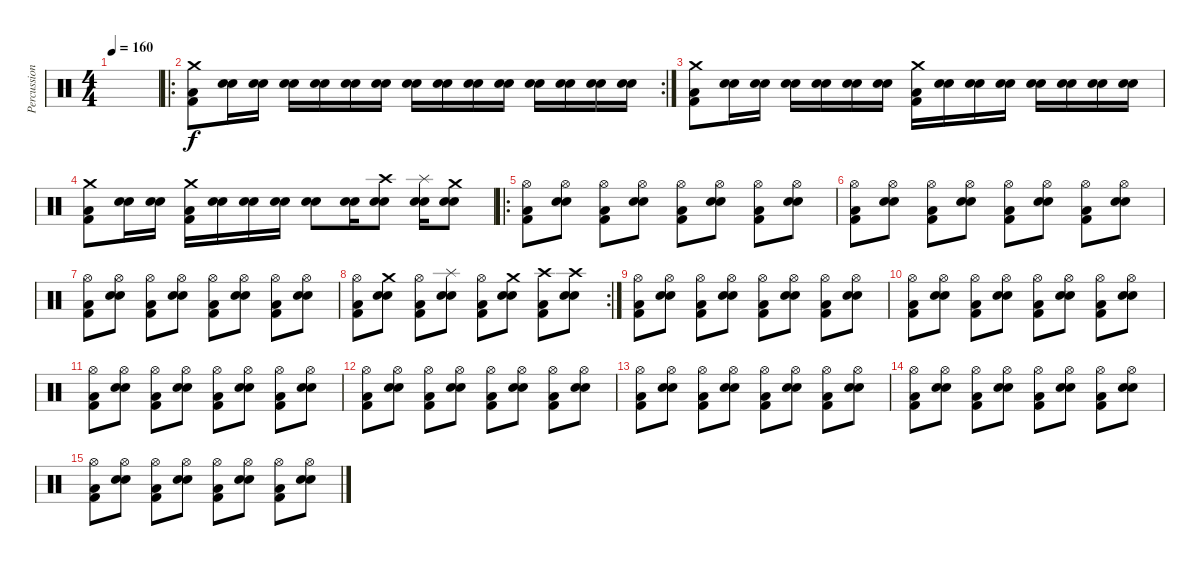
\track ("Percussions" "Percussion") {instrument percussion}
\staff {score}
\articulation defaults
\ts (4 4)
\tempo 160
\clef neutral
\ks c
|
\ro
\rc 2
("Crash medium (hit)" "Kick (hit) 2" "Low Floor Tom (hit)").8 ("Snare (hit) 2" "Electric Snare (hit)").16 ("Snare (hit) 2" "Electric Snare (hit)").16 ("Snare (hit) 2" "Electric Snare (hit)").16 ("Snare (hit) 2" "Electric Snare (hit)").16 ("Snare (hit) 2" "Electric Snare (hit)").16 ("Snare (hit) 2" "Electric Snare (hit)").16 ("Snare (hit) 2" "Electric Snare (hit)").16 ("Snare (hit) 2" "Electric Snare (hit)").16 ("Snare (hit) 2" "Electric Snare (hit)").16 ("Snare (hit) 2" "Electric Snare (hit)").16 ("Snare (hit) 2" "Electric Snare (hit)").16 ("Snare (hit) 2" "Electric Snare (hit)").16 ("Snare (hit) 2" "Electric Snare (hit)").16 ("Snare (hit) 2" "Electric Snare (hit)").16 |
("Crash medium (hit)" "Kick (hit) 2" "Low Floor Tom (hit)").8 ("Snare (hit) 2" "Electric Snare (hit)").16 ("Snare (hit) 2" "Electric Snare (hit)").16 ("Snare (hit) 2" "Electric Snare (hit)").16 ("Snare (hit) 2" "Electric Snare (hit)").16 ("Snare (hit) 2" "Electric Snare (hit)").16 ("Snare (hit) 2" "Electric Snare (hit)").16 ("Crash medium (hit)" "Kick (hit) 2" "Low Floor Tom (hit)").16 ("Snare (hit) 2" "Electric Snare (hit)").16 ("Snare (hit) 2" "Electric Snare (hit)").16 ("Snare (hit) 2" "Electric Snare (hit)").16 ("Snare (hit) 2" "Electric Snare (hit)").16 ("Snare (hit) 2" "Electric Snare (hit)").16 ("Snare (hit) 2" "Electric Snare (hit)").16 ("Snare (hit) 2" "Electric Snare (hit)").16 |
("Crash medium (hit)" "Kick (hit) 2" "Low Floor Tom (hit)").8 ("Snare (hit) 2" "Electric Snare (hit)").16 ("Snare (hit) 2" "Electric Snare (hit)").16 ("Crash medium (hit)" "Kick (hit) 2" "Low Floor Tom (hit)").16 ("Snare (hit) 2" "Electric Snare (hit)").16 ("Snare (hit) 2" "Electric Snare (hit)").16 ("Snare (hit) 2" "Electric Snare (hit)").16 ("Snare (hit) 2" "Electric Snare (hit)").8 ("Snare (hit) 2" "Electric Snare (hit)").16 ("Crash high (hit)" "Snare (hit) 2" "Electric Snare (hit)").8 ("Splash (hit)" "Snare (hit) 2" "Electric Snare (hit)").16 ("Crash medium (hit)" "Snare (hit) 2" "Electric Snare (hit)").8 |
\ro
("Hi-Hat (open)" "Kick (hit) 2" "Low Floor Tom (hit)").8 ("Hi-Hat (open)" "Snare (hit) 2" "Electric Snare (hit)").8 ("Hi-Hat (open)" "Kick (hit) 2" "Low Floor Tom (hit)").8 ("Hi-Hat (open)" "Snare (hit) 2" "Electric Snare (hit)").8 ("Hi-Hat (open)" "Kick (hit) 2" "Low Floor Tom (hit)").8 ("Hi-Hat (open)" "Snare (hit) 2" "Electric Snare (hit)").8 ("Hi-Hat (open)" "Kick (hit) 2" "Low Floor Tom (hit)").8 ("Hi-Hat (open)" "Snare (hit) 2" "Electric Snare (hit)").8 |
("Hi-Hat (open)" "Kick (hit) 2" "Low Floor Tom (hit)").8 ("Hi-Hat (open)" "Snare (hit) 2" "Electric Snare (hit)").8 ("Hi-Hat (open)" "Kick (hit) 2" "Low Floor Tom (hit)").8 ("Hi-Hat (open)" "Snare (hit) 2" "Electric Snare (hit)").8 ("Hi-Hat (open)" "Kick (hit) 2" "Low Floor Tom (hit)").8 ("Hi-Hat (open)" "Snare (hit) 2" "Electric Snare (hit)").8 ("Hi-Hat (open)" "Kick (hit) 2" "Low Floor Tom (hit)").8 ("Hi-Hat (open)" "Snare (hit) 2" "Electric Snare (hit)").8 |
("Hi-Hat (open)" "Kick (hit) 2" "Low Floor Tom (hit)").8 ("Hi-Hat (open)" "Snare (hit) 2" "Electric Snare (hit)").8 ("Hi-Hat (open)" "Kick (hit) 2" "Low Floor Tom (hit)").8 ("Hi-Hat (open)" "Snare (hit) 2" "Electric Snare (hit)").8 ("Hi-Hat (open)" "Kick (hit) 2" "Low Floor Tom (hit)").8 ("Hi-Hat (open)" "Snare (hit) 2" "Electric Snare (hit)").8 ("Hi-Hat (open)" "Kick (hit) 2" "Low Floor Tom (hit)").8 ("Hi-Hat (open)" "Snare (hit) 2" "Electric Snare (hit)").8 |
\rc 2
("Hi-Hat (open)" "Kick (hit) 2" "Low Floor Tom (hit)").8 ("Crash medium (hit)" "Snare (hit) 2" "Electric Snare (hit)").8 ("Hi-Hat (open)" "Kick (hit) 2" "Low Floor Tom (hit)").8 ("Splash (hit)" "Snare (hit) 2" "Electric Snare (hit)").8 ("Hi-Hat (open)" "Kick (hit) 2" "Low Floor Tom (hit)").8 ("Crash medium (hit)" "Snare (hit) 2" "Electric Snare (hit)").8 ("Crash high (hit)" "Kick (hit) 2" "Low Floor Tom (hit)").8 ("Crash high (hit)" "Snare (hit) 2" "Electric Snare (hit)").8 |
("Hi-Hat (open)" "Kick (hit) 2" "Low Floor Tom (hit)").8 ("Hi-Hat (open)" "Snare (hit) 2" "Electric Snare (hit)").8 ("Hi-Hat (open)" "Kick (hit) 2" "Low Floor Tom (hit)").8 ("Hi-Hat (open)" "Snare (hit) 2" "Electric Snare (hit)").8 ("Hi-Hat (open)" "Kick (hit) 2" "Low Floor Tom (hit)").8 ("Hi-Hat (open)" "Snare (hit) 2" "Electric Snare (hit)").8 ("Hi-Hat (open)" "Kick (hit) 2" "Low Floor Tom (hit)").8 ("Hi-Hat (open)" "Snare (hit) 2" "Electric Snare (hit)").8 |
("Hi-Hat (open)" "Kick (hit) 2" "Low Floor Tom (hit)").8 ("Hi-Hat (open)" "Snare (hit) 2" "Electric Snare (hit)").8 ("Hi-Hat (open)" "Kick (hit) 2" "Low Floor Tom (hit)").8 ("Hi-Hat (open)" "Snare (hit) 2" "Electric Snare (hit)").8 ("Hi-Hat (open)" "Kick (hit) 2" "Low Floor Tom (hit)").8 ("Hi-Hat (open)" "Snare (hit) 2" "Electric Snare (hit)").8 ("Hi-Hat (open)" "Kick (hit) 2" "Low Floor Tom (hit)").8 ("Hi-Hat (open)" "Snare (hit) 2" "Electric Snare (hit)").8 |
("Hi-Hat (open)" "Kick (hit) 2" "Low Floor Tom (hit)").8 ("Hi-Hat (open)" "Snare (hit) 2" "Electric Snare (hit)").8 ("Hi-Hat (open)" "Kick (hit) 2" "Low Floor Tom (hit)").8 ("Hi-Hat (open)" "Snare (hit) 2" "Electric Snare (hit)").8 ("Hi-Hat (open)" "Kick (hit) 2" "Low Floor Tom (hit)").8 ("Hi-Hat (open)" "Snare (hit) 2" "Electric Snare (hit)").8 ("Hi-Hat (open)" "Kick (hit) 2" "Low Floor Tom (hit)").8 ("Hi-Hat (open)" "Snare (hit) 2" "Electric Snare (hit)").8 |
("Hi-Hat (open)" "Kick (hit) 2" "Low Floor Tom (hit)").8 ("Hi-Hat (open)" "Snare (hit) 2" "Electric Snare (hit)").8 ("Hi-Hat (open)" "Kick (hit) 2" "Low Floor Tom (hit)").8 ("Hi-Hat (open)" "Snare (hit) 2" "Electric Snare (hit)").8 ("Hi-Hat (open)" "Kick (hit) 2" "Low Floor Tom (hit)").8 ("Hi-Hat (open)" "Snare (hit) 2" "Electric Snare (hit)").8 ("Hi-Hat (open)" "Kick (hit) 2" "Low Floor Tom (hit)").8 ("Hi-Hat (open)" "Snare (hit) 2" "Electric Snare (hit)").8 |
("Hi-Hat (open)" "Kick (hit) 2" "Low Floor Tom (hit)").8 ("Hi-Hat (open)" "Snare (hit) 2" "Electric Snare (hit)").8 ("Hi-Hat (open)" "Kick (hit) 2" "Low Floor Tom (hit)").8 ("Hi-Hat (open)" "Snare (hit) 2" "Electric Snare (hit)").8 ("Hi-Hat (open)" "Kick (hit) 2" "Low Floor Tom (hit)").8 ("Hi-Hat (open)" "Snare (hit) 2" "Electric Snare (hit)").8 ("Hi-Hat (open)" "Kick (hit) 2" "Low Floor Tom (hit)").8 ("Hi-Hat (open)" "Snare (hit) 2" "Electric Snare (hit)").8 |
("Hi-Hat (open)" "Kick (hit) 2" "Low Floor Tom (hit)").8 ("Hi-Hat (open)" "Snare (hit) 2" "Electric Snare (hit)").8 ("Hi-Hat (open)" "Kick (hit) 2" "Low Floor Tom (hit)").8 ("Hi-Hat (open)" "Snare (hit) 2" "Electric Snare (hit)").8 ("Hi-Hat (open)" "Kick (hit) 2" "Low Floor Tom (hit)").8 ("Hi-Hat (open)" "Snare (hit) 2" "Electric Snare (hit)").8 ("Hi-Hat (open)" "Kick (hit) 2" "Low Floor Tom (hit)").8 ("Hi-Hat (open)" "Snare (hit) 2" "Electric Snare (hit)").8 |
("Hi-Hat (open)" "Kick (hit) 2" "Low Floor Tom (hit)").8 ("Hi-Hat (open)" "Snare (hit) 2" "Electric Snare (hit)").8 ("Hi-Hat (open)" "Kick (hit) 2" "Low Floor Tom (hit)").8 ("Hi-Hat (open)" "Snare (hit) 2" "Electric Snare (hit)").8 ("Hi-Hat (open)" "Kick (hit) 2" "Low Floor Tom (hit)").8 ("Hi-Hat (open)" "Snare (hit) 2" "Electric Snare (hit)").8 ("Hi-Hat (open)" "Kick (hit) 2" "Low Floor Tom (hit)").8 ("Hi-Hat (open)" "Snare (hit) 2" "Electric Snare (hit)").8
